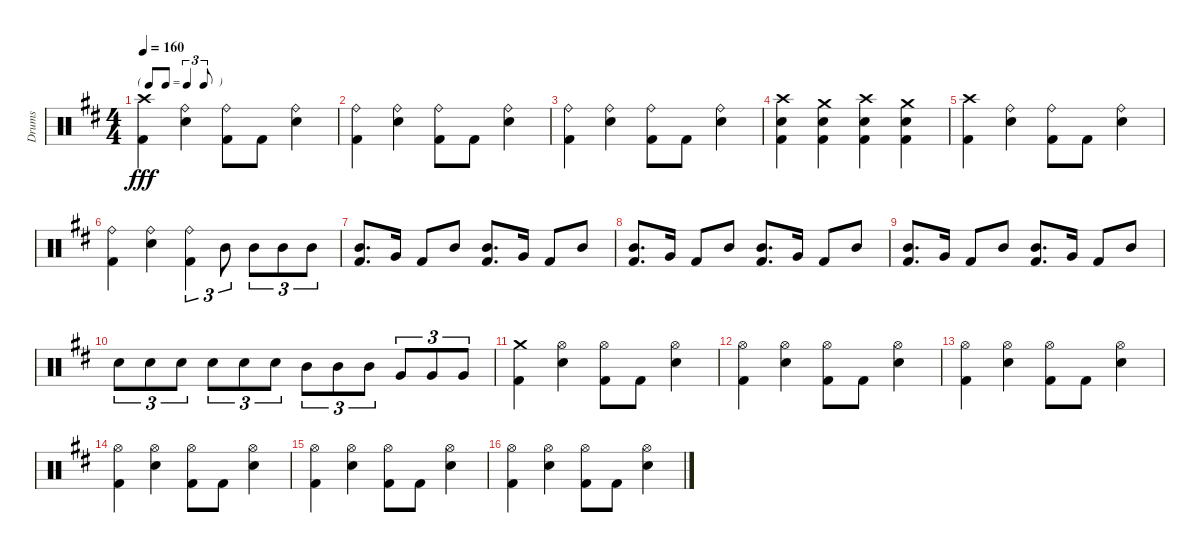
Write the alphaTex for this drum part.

\track ("Drums" "Drums") {instrument percussion}
\staff {score}
\articulation defaults
\ts (4 4)
\tf triplet8th
\tempo 160
\clef neutral
\ks d
("Crash high (hit)" "Kick (hit) 2").4{dy fff} ("Ride (bell)" "Electric Snare (hit)").4 ("Ride (bell)" "Kick (hit) 2").8 "Kick (hit) 2".8 ("Ride (bell)" "Electric Snare (hit)").4 |
("Ride (bell)" "Kick (hit) 2").4 ("Ride (bell)" "Electric Snare (hit)").4 ("Ride (bell)" "Kick (hit) 2").8 "Kick (hit) 2".8 ("Ride (bell)" "Electric Snare (hit)").4 |
("Ride (bell)" "Kick (hit) 2").4 ("Ride (bell)" "Electric Snare (hit)").4 ("Ride (bell)" "Kick (hit) 2").8 "Kick (hit) 2".8 ("Ride (bell)" "Electric Snare (hit)").4 |
("Crash high (hit)" "Electric Snare (hit)" "Kick (hit) 2").4 ("Crash medium (hit)" "Electric Snare (hit)" "Kick (hit) 2").4 ("Crash high (hit)" "Electric Snare (hit)" "Kick (hit) 2").4 ("Crash medium (hit)" "Electric Snare (hit)" "Kick (hit) 2").4 |
("Crash high (hit)" "Kick (hit) 2").4 ("Ride (bell)" "Electric Snare (hit)").4 ("Ride (bell)" "Kick (hit) 2").8 "Kick (hit) 2".8 ("Ride (bell)" "Electric Snare (hit)").4 |
("Ride (bell)" "Kick (hit) 2").4 ("Ride (bell)" "Electric Snare (hit)").4 ("Ride (bell)" "Kick (hit) 2").4{tu (3 2)} "Mid Tom (hit)".8{tu (3 2)} "Mid Tom (hit)".8{tu (3 2)} "Mid Tom (hit)".8{tu (3 2)} "Mid Tom (hit)".8{tu (3 2)} |
("Mid Tom (hit)" "Kick (hit) 2").8{d} "Very Low Tom (hit)".16 "Kick (hit) 2".8 "Mid Tom (hit)".8 ("Mid Tom (hit)" "Kick (hit) 2").8{d} "Very Low Tom (hit)".16 "Kick (hit) 2".8 "Mid Tom (hit)".8 |
("Mid Tom (hit)" "Kick (hit) 2").8{d} "Very Low Tom (hit)".16 "Kick (hit) 2".8 "Mid Tom (hit)".8 ("Mid Tom (hit)" "Kick (hit) 2").8{d} "Very Low Tom (hit)".16 "Kick (hit) 2".8 "Mid Tom (hit)".8 |
("Mid Tom (hit)" "Kick (hit) 2").8{d} "Very Low Tom (hit)".16 "Kick (hit) 2".8 "Mid Tom (hit)".8 ("Mid Tom (hit)" "Kick (hit) 2").8{d} "Very Low Tom (hit)".16 "Kick (hit) 2".8 "Mid Tom (hit)".8 |
"Electric Snare (hit)".8{tu (3 2)} "Electric Snare (hit)".8{tu (3 2)} "Electric Snare (hit)".8{tu (3 2)} "Electric Snare (hit)".8{tu (3 2)} "Electric Snare (hit)".8{tu (3 2)} "Electric Snare (hit)".8{tu (3 2)} "Mid Tom (hit)".8{tu (3 2)} "Mid Tom (hit)".8{tu (3 2)} "Mid Tom (hit)".8{tu (3 2)} "Very Low Tom (hit)".8{tu (3 2)} "Very Low Tom (hit)".8{tu (3 2)} "Very Low Tom (hit)".8{tu (3 2)} |
("Crash medium (hit)" "Kick (hit) 2").4 ("Hi-Hat (open)" "Electric Snare (hit)").4 ("Hi-Hat (open)" "Kick (hit) 2").8 "Kick (hit) 2".8 ("Hi-Hat (open)" "Electric Snare (hit)").4 |
("Hi-Hat (open)" "Kick (hit) 2").4 ("Hi-Hat (open)" "Electric Snare (hit)").4 ("Hi-Hat (open)" "Kick (hit) 2").8 "Kick (hit) 2".8 ("Hi-Hat (open)" "Electric Snare (hit)").4 |
("Hi-Hat (open)" "Kick (hit) 2").4 ("Hi-Hat (open)" "Electric Snare (hit)").4 ("Hi-Hat (open)" "Kick (hit) 2").8 "Kick (hit) 2".8 ("Hi-Hat (open)" "Electric Snare (hit)").4 |
("Hi-Hat (open)" "Kick (hit) 2").4 ("Hi-Hat (open)" "Electric Snare (hit)").4 ("Hi-Hat (open)" "Kick (hit) 2").8 "Kick (hit) 2".8 ("Hi-Hat (open)" "Electric Snare (hit)").4 |
("Hi-Hat (open)" "Kick (hit) 2").4 ("Hi-Hat (open)" "Electric Snare (hit)").4 ("Hi-Hat (open)" "Kick (hit) 2").8 "Kick (hit) 2".8 ("Hi-Hat (open)" "Electric Snare (hit)").4 |
("Hi-Hat (open)" "Kick (hit) 2").4 ("Hi-Hat (open)" "Electric Snare (hit)").4 ("Hi-Hat (open)" "Kick (hit) 2").8 "Kick (hit) 2".8 ("Hi-Hat (open)" "Electric Snare (hit)").4
